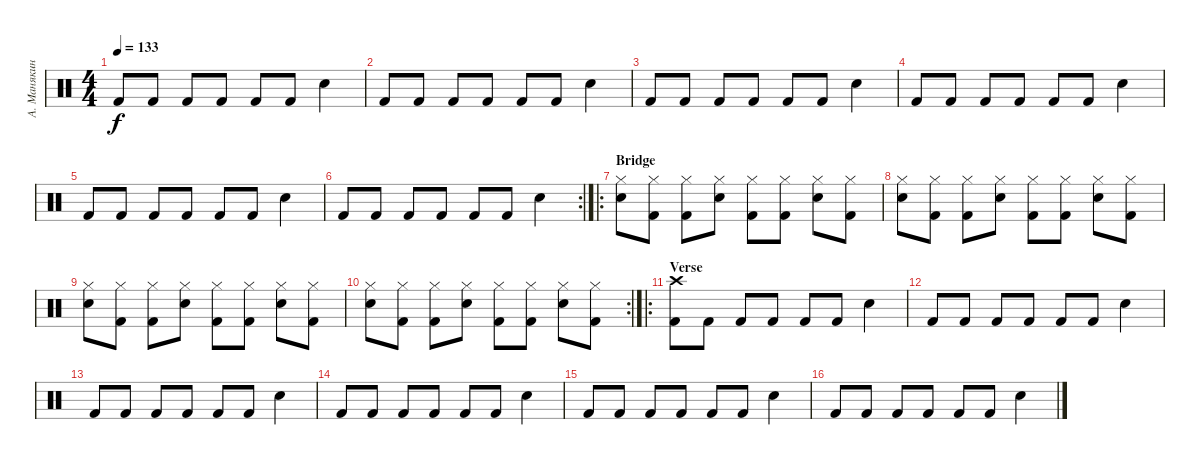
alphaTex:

\track ("А. Манякин" "А. Манякин") {instrument percussion}
\staff {score}
\articulation defaults
\ts (4 4)
\tempo 133
\clef neutral
\ks c "Kick (hit) 2".8{dy f} "Kick (hit) 2".8 "Kick (hit) 2".8 "Kick (hit) 2".8 "Kick (hit) 2".8 "Kick (hit) 2".8 "Snare (hit) 2".4
|
"Kick (hit) 2".8 "Kick (hit) 2".8 "Kick (hit) 2".8 "Kick (hit) 2".8 "Kick (hit) 2".8 "Kick (hit) 2".8 "Snare (hit) 2".4 |
"Kick (hit) 2".8 "Kick (hit) 2".8 "Kick (hit) 2".8 "Kick (hit) 2".8 "Kick (hit) 2".8 "Kick (hit) 2".8 "Snare (hit) 2".4 |
"Kick (hit) 2".8 "Kick (hit) 2".8 "Kick (hit) 2".8 "Kick (hit) 2".8 "Kick (hit) 2".8 "Kick (hit) 2".8 "Snare (hit) 2".4 |
"Kick (hit) 2".8 "Kick (hit) 2".8 "Kick (hit) 2".8 "Kick (hit) 2".8 "Kick (hit) 2".8 "Kick (hit) 2".8 "Snare (hit) 2".4 |
\rc 2 "Kick (hit) 2".8 "Kick (hit) 2".8 "Kick (hit) 2".8 "Kick (hit) 2".8 "Kick (hit) 2".8 "Kick (hit) 2".8 "Snare (hit) 2".4
|
\ro
\section ("" "Bridge")
("Hi-Hat (closed)" "Snare (hit) 2").8 ("Hi-Hat (closed)" "Kick (hit) 2").8 ("Hi-Hat (closed)" "Kick (hit) 2").8 ("Hi-Hat (closed)" "Snare (hit) 2").8 ("Hi-Hat (closed)" "Kick (hit) 2").8 ("Hi-Hat (closed)" "Kick (hit) 2").8 ("Hi-Hat (closed)" "Snare (hit) 2").8 ("Hi-Hat (closed)" "Kick (hit) 2").8 |
("Hi-Hat (closed)" "Snare (hit) 2").8 ("Hi-Hat (closed)" "Kick (hit) 2").8 ("Hi-Hat (closed)" "Kick (hit) 2").8 ("Hi-Hat (closed)" "Snare (hit) 2").8 ("Hi-Hat (closed)" "Kick (hit) 2").8 ("Hi-Hat (closed)" "Kick (hit) 2").8 ("Hi-Hat (closed)" "Snare (hit) 2").8 ("Hi-Hat (closed)" "Kick (hit) 2").8 |
("Hi-Hat (closed)" "Snare (hit) 2").8 ("Hi-Hat (closed)" "Kick (hit) 2").8 ("Hi-Hat (closed)" "Kick (hit) 2").8 ("Hi-Hat (closed)" "Snare (hit) 2").8 ("Hi-Hat (closed)" "Kick (hit) 2").8 ("Hi-Hat (closed)" "Kick (hit) 2").8 ("Hi-Hat (closed)" "Snare (hit) 2").8 ("Hi-Hat (closed)" "Kick (hit) 2").8 |
\rc 2
("Hi-Hat (closed)" "Snare (hit) 2").8 ("Hi-Hat (closed)" "Kick (hit) 2").8 ("Hi-Hat (closed)" "Kick (hit) 2").8 ("Hi-Hat (closed)" "Snare (hit) 2").8 ("Hi-Hat (closed)" "Kick (hit) 2").8 ("Hi-Hat (closed)" "Kick (hit) 2").8 ("Hi-Hat (closed)" "Snare (hit) 2").8 ("Hi-Hat (closed)" "Kick (hit) 2").8 |
\ro
\section ("" "Verse")
("Kick (hit) 2" "Crash high (hit)").8 "Kick (hit) 2".8 "Kick (hit) 2".8 "Kick (hit) 2".8 "Kick (hit) 2".8 "Kick (hit) 2".8 "Snare (hit) 2".4 |
"Kick (hit) 2".8 "Kick (hit) 2".8 "Kick (hit) 2".8 "Kick (hit) 2".8 "Kick (hit) 2".8 "Kick (hit) 2".8 "Snare (hit) 2".4 |
"Kick (hit) 2".8 "Kick (hit) 2".8 "Kick (hit) 2".8 "Kick (hit) 2".8 "Kick (hit) 2".8 "Kick (hit) 2".8 "Snare (hit) 2".4 |
"Kick (hit) 2".8 "Kick (hit) 2".8 "Kick (hit) 2".8 "Kick (hit) 2".8 "Kick (hit) 2".8 "Kick (hit) 2".8 "Snare (hit) 2".4 |
"Kick (hit) 2".8 "Kick (hit) 2".8 "Kick (hit) 2".8 "Kick (hit) 2".8 "Kick (hit) 2".8 "Kick (hit) 2".8 "Snare (hit) 2".4 |
"Kick (hit) 2".8 "Kick (hit) 2".8 "Kick (hit) 2".8 "Kick (hit) 2".8 "Kick (hit) 2".8 "Kick (hit) 2".8 "Snare (hit) 2".4
